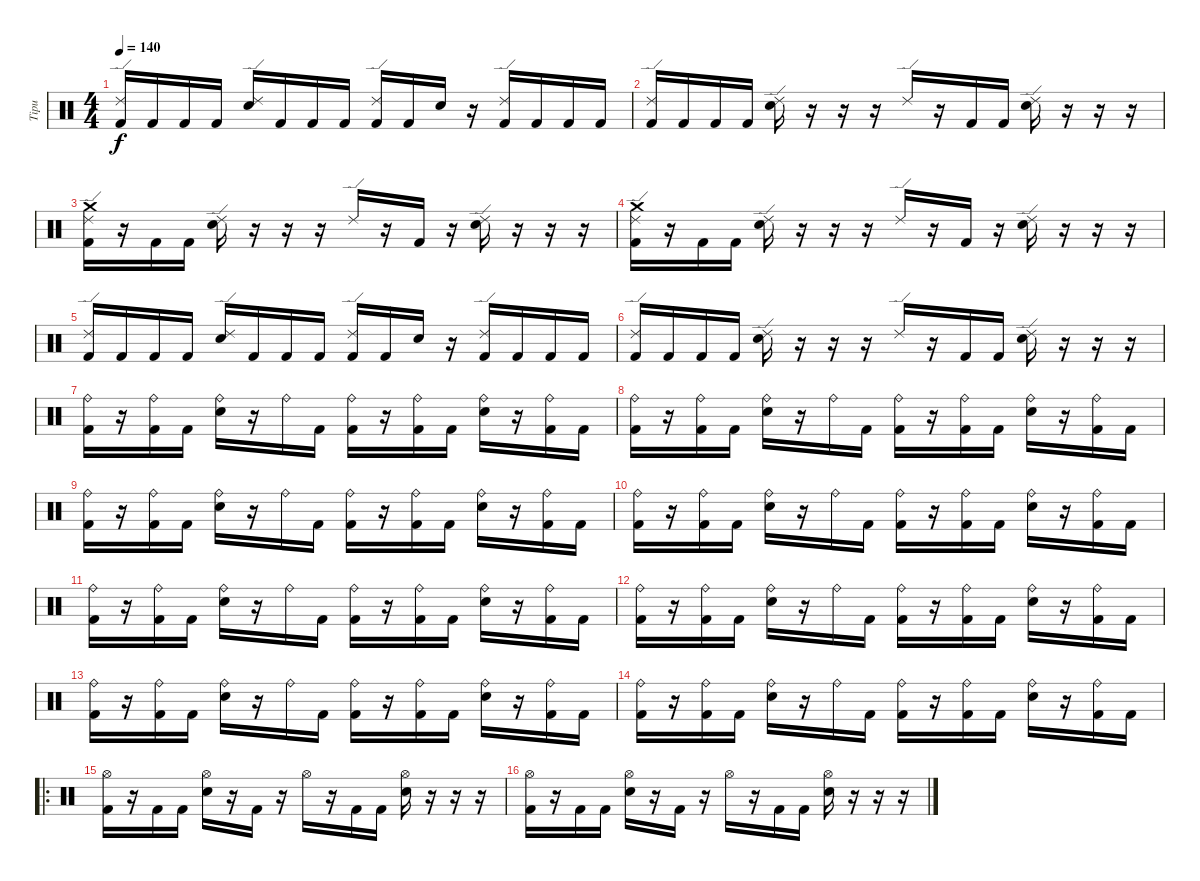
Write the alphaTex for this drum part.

\track ("Tipu" "Tipu") {instrument percussion}
\staff {score}
\articulation defaults
\ts (4 4)
\tempo 140
\clef neutral
\ks c
("Kick (hit) 2" "Ride (edge) 2").16{dy f} "Kick (hit) 2".16 "Kick (hit) 2".16 "Kick (hit) 2".16 ("Electric Snare (hit)" "Ride (edge) 2").16 "Kick (hit) 2".16 "Kick (hit) 2".16 "Kick (hit) 2".16 ("Kick (hit) 2" "Ride (edge) 2").16 "Kick (hit) 2".16 "Electric Snare (hit)".16 r.16 ("Kick (hit) 2" "Ride (edge) 2").16 "Kick (hit) 2".16 "Kick (hit) 2".16 "Kick (hit) 2".16 |
("Kick (hit) 2" "Ride (edge) 2").16 "Kick (hit) 2".16 "Kick (hit) 2".16 "Kick (hit) 2".16 ("Electric Snare (hit)" "Ride (edge) 2").16 r.16 r.16 r.16 "Ride (edge) 2".16 r.16 "Kick (hit) 2".16 "Kick (hit) 2".16 ("Electric Snare (hit)" "Ride (edge) 2").16 r.16 r.16 r.16 |
("Kick (hit) 2" "Ride (edge) 2" "Crash medium (hit)").16 r.16 "Kick (hit) 2".16 "Kick (hit) 2".16 ("Electric Snare (hit)" "Ride (edge) 2").16 r.16 r.16 r.16 "Ride (edge) 2".16 r.16 "Kick (hit) 2".16 r.16 ("Electric Snare (hit)" "Ride (edge) 2").16 r.16 r.16 r.16 |
("Kick (hit) 2" "Ride (edge) 2" "Crash medium (hit)").16 r.16 "Kick (hit) 2".16 "Kick (hit) 2".16 ("Electric Snare (hit)" "Ride (edge) 2").16 r.16 r.16 r.16 "Ride (edge) 2".16 r.16 "Kick (hit) 2".16 r.16 ("Electric Snare (hit)" "Ride (edge) 2").16 r.16 r.16 r.16 |
("Kick (hit) 2" "Ride (edge) 2").16 "Kick (hit) 2".16 "Kick (hit) 2".16 "Kick (hit) 2".16 ("Electric Snare (hit)" "Ride (edge) 2").16 "Kick (hit) 2".16 "Kick (hit) 2".16 "Kick (hit) 2".16 ("Kick (hit) 2" "Ride (edge) 2").16 "Kick (hit) 2".16 "Electric Snare (hit)".16 r.16 ("Kick (hit) 2" "Ride (edge) 2").16 "Kick (hit) 2".16 "Kick (hit) 2".16 "Kick (hit) 2".16 |
("Kick (hit) 2" "Ride (edge) 2").16 "Kick (hit) 2".16 "Kick (hit) 2".16 "Kick (hit) 2".16 ("Electric Snare (hit)" "Ride (edge) 2").16 r.16 r.16 r.16 "Ride (edge) 2".16 r.16 "Kick (hit) 2".16 "Kick (hit) 2".16 ("Electric Snare (hit)" "Ride (edge) 2").16 r.16 r.16 r.16 |
("Ride (bell)" "Kick (hit) 2").16 r.16 ("Ride (bell)" "Kick (hit) 2").16 "Kick (hit) 2".16 ("Ride (bell)" "Electric Snare (hit)").16 r.16 "Ride (bell)".16 "Kick (hit) 2".16 ("Ride (bell)" "Kick (hit) 2").16 r.16 ("Ride (bell)" "Kick (hit) 2").16 "Kick (hit) 2".16 ("Ride (bell)" "Electric Snare (hit)").16 r.16 ("Ride (bell)" "Kick (hit) 2").16 "Kick (hit) 2".16 |
("Ride (bell)" "Kick (hit) 2").16 r.16 ("Ride (bell)" "Kick (hit) 2").16 "Kick (hit) 2".16 ("Ride (bell)" "Electric Snare (hit)").16 r.16 "Ride (bell)".16 "Kick (hit) 2".16 ("Ride (bell)" "Kick (hit) 2").16 r.16 ("Ride (bell)" "Kick (hit) 2").16 "Kick (hit) 2".16 ("Ride (bell)" "Electric Snare (hit)").16 r.16 ("Ride (bell)" "Kick (hit) 2").16 "Kick (hit) 2".16 |
("Ride (bell)" "Kick (hit) 2").16 r.16 ("Ride (bell)" "Kick (hit) 2").16 "Kick (hit) 2".16 ("Ride (bell)" "Electric Snare (hit)").16 r.16 "Ride (bell)".16 "Kick (hit) 2".16 ("Ride (bell)" "Kick (hit) 2").16 r.16 ("Ride (bell)" "Kick (hit) 2").16 "Kick (hit) 2".16 ("Ride (bell)" "Electric Snare (hit)").16 r.16 ("Ride (bell)" "Kick (hit) 2").16 "Kick (hit) 2".16 |
("Ride (bell)" "Kick (hit) 2").16 r.16 ("Ride (bell)" "Kick (hit) 2").16 "Kick (hit) 2".16 ("Ride (bell)" "Electric Snare (hit)").16 r.16 "Ride (bell)".16 "Kick (hit) 2".16 ("Ride (bell)" "Kick (hit) 2").16 r.16 ("Ride (bell)" "Kick (hit) 2").16 "Kick (hit) 2".16 ("Ride (bell)" "Electric Snare (hit)").16 r.16 ("Ride (bell)" "Kick (hit) 2").16 "Kick (hit) 2".16 |
("Ride (bell)" "Kick (hit) 2").16 r.16 ("Ride (bell)" "Kick (hit) 2").16 "Kick (hit) 2".16 ("Ride (bell)" "Electric Snare (hit)").16 r.16 "Ride (bell)".16 "Kick (hit) 2".16 ("Ride (bell)" "Kick (hit) 2").16 r.16 ("Ride (bell)" "Kick (hit) 2").16 "Kick (hit) 2".16 ("Ride (bell)" "Electric Snare (hit)").16 r.16 ("Ride (bell)" "Kick (hit) 2").16 "Kick (hit) 2".16 |
("Ride (bell)" "Kick (hit) 2").16 r.16 ("Ride (bell)" "Kick (hit) 2").16 "Kick (hit) 2".16 ("Ride (bell)" "Electric Snare (hit)").16 r.16 "Ride (bell)".16 "Kick (hit) 2".16 ("Ride (bell)" "Kick (hit) 2").16 r.16 ("Ride (bell)" "Kick (hit) 2").16 "Kick (hit) 2".16 ("Ride (bell)" "Electric Snare (hit)").16 r.16 ("Ride (bell)" "Kick (hit) 2").16 "Kick (hit) 2".16 |
("Ride (bell)" "Kick (hit) 2").16 r.16 ("Ride (bell)" "Kick (hit) 2").16 "Kick (hit) 2".16 ("Ride (bell)" "Electric Snare (hit)").16 r.16 "Ride (bell)".16 "Kick (hit) 2".16 ("Ride (bell)" "Kick (hit) 2").16 r.16 ("Ride (bell)" "Kick (hit) 2").16 "Kick (hit) 2".16 ("Ride (bell)" "Electric Snare (hit)").16 r.16 ("Ride (bell)" "Kick (hit) 2").16 "Kick (hit) 2".16 |
("Ride (bell)" "Kick (hit) 2").16 r.16 ("Ride (bell)" "Kick (hit) 2").16 "Kick (hit) 2".16 ("Ride (bell)" "Electric Snare (hit)").16 r.16 "Ride (bell)".16 "Kick (hit) 2".16 ("Ride (bell)" "Kick (hit) 2").16 r.16 ("Ride (bell)" "Kick (hit) 2").16 "Kick (hit) 2".16 ("Ride (bell)" "Electric Snare (hit)").16 r.16 ("Ride (bell)" "Kick (hit) 2").16 "Kick (hit) 2".16 |
\ro
("Hi-Hat (open)" "Kick (hit) 2").16 r.16 "Kick (hit) 2".16 "Kick (hit) 2".16 ("Hi-Hat (open)" "Electric Snare (hit)").16 r.16 "Kick (hit) 2".16 r.16 "Hi-Hat (open)".16 r.16 "Kick (hit) 2".16 "Kick (hit) 2".16 ("Hi-Hat (open)" "Electric Snare (hit)").16 r.16 r.16 r.16 |
("Hi-Hat (open)" "Kick (hit) 2").16 r.16 "Kick (hit) 2".16 "Kick (hit) 2".16 ("Hi-Hat (open)" "Electric Snare (hit)").16 r.16 "Kick (hit) 2".16 r.16 "Hi-Hat (open)".16 r.16 "Kick (hit) 2".16 "Kick (hit) 2".16 ("Hi-Hat (open)" "Electric Snare (hit)").16 r.16 r.16 r.16
